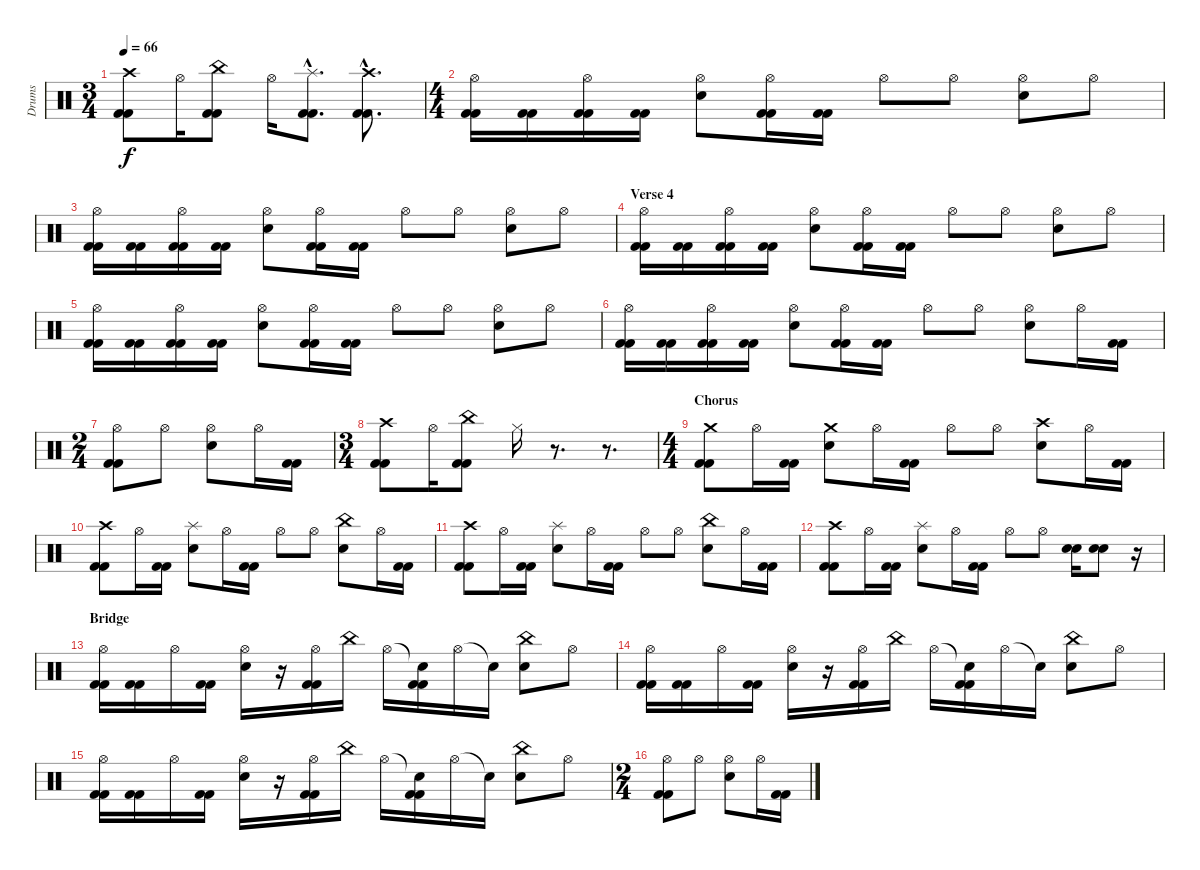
\track ("Drums" "Drums") {instrument percussion}
\staff {score}
\articulation defaults
\ts (3 4)
\tempo 66
\clef neutral
\ks c
("Crash high (hit)" "Kick (hit) 2" "Kick (hit) 2").8{dy f} "Hi-Hat (open)".16 ("China (hit)" "Kick (hit) 2" "Kick (hit) 2").8 "Hi-Hat (open)".16 ("Splash (hit)"{hac} "Kick (hit) 2"{hac} "Kick (hit) 2"{hac}).8{d} ("Crash high (hit)"{hac} "Kick (hit) 2"{hac} "Kick (hit) 2"{hac}).8{d} |
\ts (4 4)
("Hi-Hat (open)" "Kick (hit) 2" "Kick (hit) 2").16 ("Kick (hit) 2" "Kick (hit) 2").16 ("Hi-Hat (open)" "Kick (hit) 2" "Kick (hit) 2").16 ("Kick (hit) 2" "Kick (hit) 2").16 ("Hi-Hat (open)" "Snare (hit) 2").8 ("Hi-Hat (open)" "Kick (hit) 2" "Kick (hit) 2").16 ("Kick (hit) 2" "Kick (hit) 2").16 "Hi-Hat (open)".8 "Hi-Hat (open)".8 ("Hi-Hat (open)" "Snare (hit) 2").8 "Hi-Hat (open)".8 |
("Hi-Hat (open)" "Kick (hit) 2" "Kick (hit) 2").16 ("Kick (hit) 2" "Kick (hit) 2").16 ("Hi-Hat (open)" "Kick (hit) 2" "Kick (hit) 2").16 ("Kick (hit) 2" "Kick (hit) 2").16 ("Hi-Hat (open)" "Snare (hit) 2").8 ("Hi-Hat (open)" "Kick (hit) 2" "Kick (hit) 2").16 ("Kick (hit) 2" "Kick (hit) 2").16 "Hi-Hat (open)".8 "Hi-Hat (open)".8 ("Hi-Hat (open)" "Snare (hit) 2").8 "Hi-Hat (open)".8 |
\section ("" "Verse 4")
("Hi-Hat (open)" "Kick (hit) 2" "Kick (hit) 2").16 ("Kick (hit) 2" "Kick (hit) 2").16 ("Hi-Hat (open)" "Kick (hit) 2" "Kick (hit) 2").16 ("Kick (hit) 2" "Kick (hit) 2").16 ("Hi-Hat (open)" "Snare (hit) 2").8 ("Hi-Hat (open)" "Kick (hit) 2" "Kick (hit) 2").16 ("Kick (hit) 2" "Kick (hit) 2").16 "Hi-Hat (open)".8 "Hi-Hat (open)".8 ("Hi-Hat (open)" "Snare (hit) 2").8 "Hi-Hat (open)".8 |
("Hi-Hat (open)" "Kick (hit) 2" "Kick (hit) 2").16 ("Kick (hit) 2" "Kick (hit) 2").16 ("Hi-Hat (open)" "Kick (hit) 2" "Kick (hit) 2").16 ("Kick (hit) 2" "Kick (hit) 2").16 ("Hi-Hat (open)" "Snare (hit) 2").8 ("Hi-Hat (open)" "Kick (hit) 2" "Kick (hit) 2").16 ("Kick (hit) 2" "Kick (hit) 2").16 "Hi-Hat (open)".8 "Hi-Hat (open)".8 ("Hi-Hat (open)" "Snare (hit) 2").8 "Hi-Hat (open)".8 |
("Hi-Hat (open)" "Kick (hit) 2" "Kick (hit) 2").16 ("Kick (hit) 2" "Kick (hit) 2").16 ("Hi-Hat (open)" "Kick (hit) 2" "Kick (hit) 2").16 ("Kick (hit) 2" "Kick (hit) 2").16 ("Hi-Hat (open)" "Snare (hit) 2").8 ("Hi-Hat (open)" "Kick (hit) 2" "Kick (hit) 2").16 ("Kick (hit) 2" "Kick (hit) 2").16 "Hi-Hat (open)".8 "Hi-Hat (open)".8 ("Hi-Hat (open)" "Snare (hit) 2").8 "Hi-Hat (open)".16 ("Kick (hit) 2" "Kick (hit) 2").16 |
\ts (2 4)
("Hi-Hat (open)" "Kick (hit) 2" "Kick (hit) 2").8 "Hi-Hat (open)".8 ("Hi-Hat (open)" "Snare (hit) 2").8 "Hi-Hat (open)".16 ("Kick (hit) 2" "Kick (hit) 2").16 |
\ts (3 4)
("Crash high (hit)" "Kick (hit) 2" "Kick (hit) 2").8 "Hi-Hat (open)".16 ("China (hit)" "Kick (hit) 2" "Kick (hit) 2").8 "Hi-Hat (closed)".16 r.8{d} r.8{d} |
\ts (4 4)
\section ("" "Chorus")
("Crash medium (hit)" "Kick (hit) 2" "Kick (hit) 2").8 "Hi-Hat (open)".16 ("Kick (hit) 2" "Kick (hit) 2").16 ("Crash medium (hit)" "Snare (hit) 2").8 "Hi-Hat (open)".16 ("Kick (hit) 2" "Kick (hit) 2").16 "Hi-Hat (open)".8 "Hi-Hat (open)".8 ("Crash high (hit)" "Snare (hit) 2").8 "Hi-Hat (open)".16 ("Kick (hit) 2" "Kick (hit) 2").16 |
("Crash high (hit)" "Kick (hit) 2" "Kick (hit) 2").8 "Hi-Hat (open)".16 ("Kick (hit) 2" "Kick (hit) 2").16 ("Splash (hit)" "Snare (hit) 2").8 "Hi-Hat (open)".16 ("Kick (hit) 2" "Kick (hit) 2").16 "Hi-Hat (open)".8 "Hi-Hat (open)".8 ("China (hit)" "Snare (hit) 2").8 "Hi-Hat (open)".16 ("Kick (hit) 2" "Kick (hit) 2").16 |
("Crash high (hit)" "Kick (hit) 2" "Kick (hit) 2").8 "Hi-Hat (open)".16 ("Kick (hit) 2" "Kick (hit) 2").16 ("Splash (hit)" "Snare (hit) 2").8 "Hi-Hat (open)".16 ("Kick (hit) 2" "Kick (hit) 2").16 "Hi-Hat (open)".8 "Hi-Hat (open)".8 ("China (hit)" "Snare (hit) 2").8 "Hi-Hat (open)".16 ("Kick (hit) 2" "Kick (hit) 2").16 |
("Crash high (hit)" "Kick (hit) 2" "Kick (hit) 2").8 "Hi-Hat (open)".16 ("Kick (hit) 2" "Kick (hit) 2").16 ("Splash (hit)" "Snare (hit) 2").8 "Hi-Hat (open)".16 ("Kick (hit) 2" "Kick (hit) 2").16 "Hi-Hat (open)".8 "Hi-Hat (open)".8 ("Snare (hit) 2" "Snare (hit) 2").16 ("Snare (hit) 2" "Snare (hit) 2").8 r.16 |
\section ("" "Bridge")
("Hi-Hat (open)" "Kick (hit) 2" "Kick (hit) 2").16 ("Kick (hit) 2" "Kick (hit) 2").16 "Hi-Hat (open)".16 ("Kick (hit) 2" "Kick (hit) 2").16 ("Hi-Hat (open)" "Snare (hit) 2").16 r.16 ("Hi-Hat (open)" "Kick (hit) 2" "Kick (hit) 2").16 "China (hit)".16 "Hi-Hat (open)".16 ("Snare (hit)"{t} "Kick (hit) 2" "Kick (hit) 2").16 "Hi-Hat (open)".16 "Snare (hit)"{t}.16 ("China (hit)" "Snare (hit) 2").8 "Hi-Hat (open)".8 |
("Hi-Hat (open)" "Kick (hit) 2" "Kick (hit) 2").16 ("Kick (hit) 2" "Kick (hit) 2").16 "Hi-Hat (open)".16 ("Kick (hit) 2" "Kick (hit) 2").16 ("Hi-Hat (open)" "Snare (hit) 2").16 r.16 ("Hi-Hat (open)" "Kick (hit) 2" "Kick (hit) 2").16 "China (hit)".16 "Hi-Hat (open)".16 ("Snare (hit)"{t} "Kick (hit) 2" "Kick (hit) 2").16 "Hi-Hat (open)".16 "Snare (hit)"{t}.16 ("China (hit)" "Snare (hit) 2").8 "Hi-Hat (open)".8 |
("Hi-Hat (open)" "Kick (hit) 2" "Kick (hit) 2").16 ("Kick (hit) 2" "Kick (hit) 2").16 "Hi-Hat (open)".16 ("Kick (hit) 2" "Kick (hit) 2").16 ("Hi-Hat (open)" "Snare (hit) 2").16 r.16 ("Hi-Hat (open)" "Kick (hit) 2" "Kick (hit) 2").16 "China (hit)".16 "Hi-Hat (open)".16 ("Snare (hit)"{t} "Kick (hit) 2" "Kick (hit) 2").16 "Hi-Hat (open)".16 "Snare (hit)"{t}.16 ("China (hit)" "Snare (hit) 2").8 "Hi-Hat (open)".8 |
\ts (2 4)
("Hi-Hat (open)" "Kick (hit) 2" "Kick (hit) 2").8 "Hi-Hat (open)".8 ("Hi-Hat (open)" "Snare (hit) 2").8 "Hi-Hat (open)".16 ("Kick (hit) 2" "Kick (hit) 2").16
